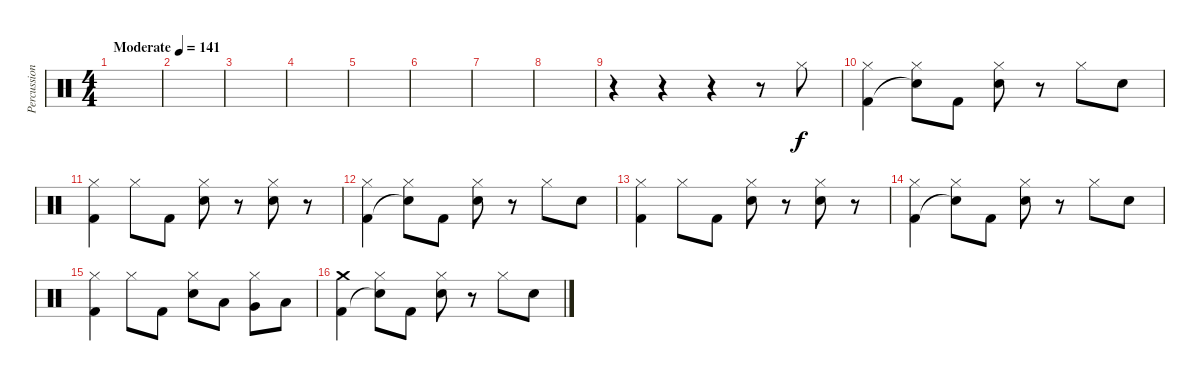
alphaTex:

\track ("Percussion" "Percussion") {instrument percussion}
\staff {score}
\articulation defaults
\ts (4 4)
\tempo (141 "Moderate")
\clef neutral
\ks c
|
|
|
|
|
|
|
|
r.4 r.4 r.4 r.8 "Hi-Hat (closed)".8 |
("Hi-Hat (closed)" "Kick (hit) 2").4 ("Hi-Hat (closed)" "Snare (hit)"{t}).8 "Kick (hit) 2".8 ("Hi-Hat (closed)" "Electric Snare (hit)").8 r.8 "Hi-Hat (closed)".8 "Electric Snare (hit)".8 |
("Hi-Hat (closed)" "Kick (hit) 2").4 "Hi-Hat (closed)".8 "Kick (hit) 2".8 ("Hi-Hat (closed)" "Electric Snare (hit)").8 r.8 ("Hi-Hat (closed)" "Electric Snare (hit)").8 r.8 |
("Hi-Hat (closed)" "Kick (hit) 2").4 ("Hi-Hat (closed)" "Snare (hit)"{t}).8 "Kick (hit) 2".8 ("Hi-Hat (closed)" "Electric Snare (hit)").8 r.8 "Hi-Hat (closed)".8 "Electric Snare (hit)".8 |
("Hi-Hat (closed)" "Kick (hit) 2").4 "Hi-Hat (closed)".8 "Kick (hit) 2".8 ("Hi-Hat (closed)" "Electric Snare (hit)").8 r.8 ("Hi-Hat (closed)" "Electric Snare (hit)").8 r.8 |
("Hi-Hat (closed)" "Kick (hit) 2").4 ("Hi-Hat (closed)" "Snare (hit)"{t}).8 "Kick (hit) 2".8 ("Hi-Hat (closed)" "Electric Snare (hit)").8 r.8 "Hi-Hat (closed)".8 "Electric Snare (hit)".8 |
("Hi-Hat (closed)" "Kick (hit) 2").4 "Hi-Hat (closed)".8 "Kick (hit) 2".8 ("Hi-Hat (closed)" "Electric Snare (hit)").8 "Low Tom (hit)".8 ("Hi-Hat (closed)" "Very Low Tom (hit)").8 "Low Floor Tom (hit)".8 |
("Crash medium (hit)" "Kick (hit) 2").4 ("Hi-Hat (closed)" "Snare (hit)"{t}).8 "Kick (hit) 2".8 ("Hi-Hat (closed)" "Electric Snare (hit)").8 r.8 "Hi-Hat (closed)".8 "Electric Snare (hit)".8
